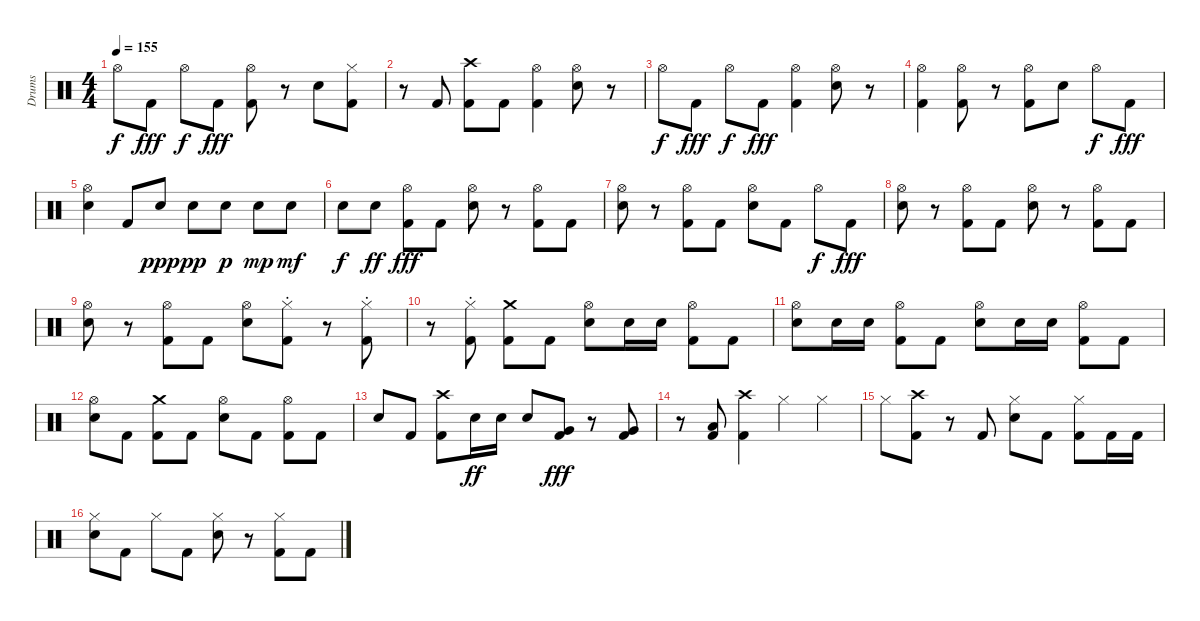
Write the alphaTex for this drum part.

\track ("Drums" "Drums") {instrument percussion}
\staff {score}
\articulation defaults
\ts (4 4)
\tempo 155
\clef neutral
\ks c "Hi-Hat (open)".8{dy f} "Kick (hit) 2".8{dy fff} "Hi-Hat (open)".8{dy f} "Kick (hit) 2".8{dy fff}
("Hi-Hat (open)" "Kick (hit) 2").8 r.8 "Snare (hit) 2".8 ("Hi-Hat (closed)" "Kick (hit) 2").8 |
r.8 "Kick (hit) 2".8 ("Crash high (hit)" "Kick (hit) 2").8 "Kick (hit) 2".8 ("Hi-Hat (open)" "Kick (hit) 2").4 ("Hi-Hat (open)" "Snare (hit) 2").8 r.8 |
"Hi-Hat (open)".8{dy f} "Kick (hit) 2".8{dy fff} "Hi-Hat (open)".8{dy f} "Kick (hit) 2".8{dy fff} ("Hi-Hat (open)" "Kick (hit) 2").4 ("Hi-Hat (open)" "Snare (hit) 2").8 r.8 |
("Hi-Hat (open)" "Kick (hit) 2").4 ("Hi-Hat (open)" "Kick (hit) 2").8 r.8 ("Hi-Hat (open)" "Kick (hit) 2").8 "Snare (hit) 2".8 "Hi-Hat (open)".8{dy f} "Kick (hit) 2".8{dy fff} |
("Hi-Hat (open)" "Snare (hit) 2").4 "Kick (hit) 2".8 "Snare (hit) 2".8{dy ppp} "Snare (hit) 2".8{dy pp} "Snare (hit) 2".8{dy p} "Snare (hit) 2".8{dy mp} "Snare (hit) 2".8{dy mf} |
"Snare (hit) 2".8{dy f} "Snare (hit) 2".8{dy ff} ("Hi-Hat (open)" "Kick (hit) 2").8{dy fff} "Kick (hit) 2".8 ("Hi-Hat (open)" "Snare (hit) 2").8 r.8 ("Hi-Hat (open)" "Kick (hit) 2").8 "Kick (hit) 2".8 |
("Hi-Hat (open)" "Snare (hit) 2").8 r.8 ("Hi-Hat (open)" "Kick (hit) 2").8 "Kick (hit) 2".8 ("Hi-Hat (open)" "Snare (hit) 2").8 "Kick (hit) 2".8 "Hi-Hat (open)".8{dy f} "Kick (hit) 2".8{dy fff} |
("Hi-Hat (open)" "Snare (hit) 2").8 r.8 ("Hi-Hat (open)" "Kick (hit) 2").8 "Kick (hit) 2".8 ("Hi-Hat (open)" "Snare (hit) 2").8 r.8 ("Hi-Hat (open)" "Kick (hit) 2").8 "Kick (hit) 2".8 |
("Hi-Hat (open)" "Snare (hit) 2").8 r.8 ("Hi-Hat (open)" "Kick (hit) 2").8 "Kick (hit) 2".8 ("Hi-Hat (open)" "Snare (hit) 2").8 ("Hi-Hat (closed)"{st} "Kick (hit) 2").8 r.8 ("Hi-Hat (closed)"{st} "Kick (hit) 2").8 |
r.8 ("Hi-Hat (closed)"{st} "Kick (hit) 2").8 ("Crash medium (hit)" "Kick (hit) 2").8 "Kick (hit) 2".8 ("Hi-Hat (open)" "Snare (hit) 2").8 "Snare (hit) 2".16 "Snare (hit) 2".16 ("Hi-Hat (open)" "Kick (hit) 2").8 "Kick (hit) 2".8 |
("Hi-Hat (open)" "Snare (hit) 2").8 "Snare (hit) 2".16 "Snare (hit) 2".16 ("Hi-Hat (open)" "Kick (hit) 2").8 "Kick (hit) 2".8 ("Hi-Hat (open)" "Snare (hit) 2").8 "Snare (hit) 2".16 "Snare (hit) 2".16 ("Hi-Hat (open)" "Kick (hit) 2").8 "Kick (hit) 2".8 |
("Hi-Hat (open)" "Snare (hit) 2").8 "Kick (hit) 2".8 ("Crash medium (hit)" "Kick (hit) 2").8 "Kick (hit) 2".8 ("Hi-Hat (open)" "Snare (hit) 2").8 "Kick (hit) 2".8 ("Hi-Hat (open)" "Kick (hit) 2").8 "Kick (hit) 2".8 |
"Snare (hit) 2".8 "Kick (hit) 2".8 ("Crash high (hit)" "Kick (hit) 2").8 "Snare (hit) 2".16{dy ff} "Snare (hit) 2".16 "Snare (hit) 2".8 ("Very Low Tom (hit)" "Kick (hit) 2").8{dy fff} r.8 ("Very Low Tom (hit)" "Kick (hit) 2").8 |
r.8 ("Low Floor Tom (hit)" "Kick (hit) 2").8 ("Crash high (hit)" "Kick (hit) 2").4 "Hi-Hat (closed)".4 "Hi-Hat (closed)".4 |
"Hi-Hat (closed)".8 ("Crash high (hit)" "Kick (hit) 2").8 r.8 "Kick (hit) 2".8 ("Hi-Hat (closed)" "Snare (hit) 2").8 "Kick (hit) 2".8 ("Hi-Hat (closed)" "Kick (hit) 2").8 "Kick (hit) 2".16 "Kick (hit) 2".16 |
("Hi-Hat (closed)" "Snare (hit) 2").8 "Kick (hit) 2".8 "Hi-Hat (closed)".8 "Kick (hit) 2".8 ("Hi-Hat (closed)" "Snare (hit) 2").8 r.8 ("Hi-Hat (closed)" "Kick (hit) 2").8 "Kick (hit) 2".8
